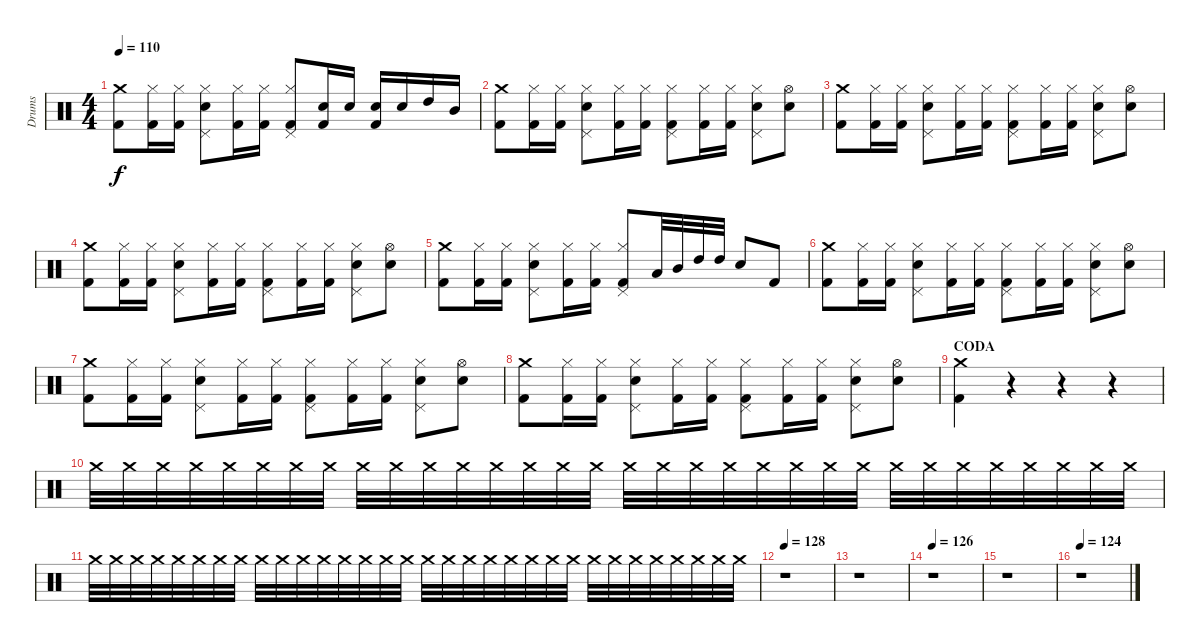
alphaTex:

\track ("Drums" "Drums") {instrument percussion}
\staff {score}
\articulation defaults
\ts (4 4)
\tempo 110
\clef neutral
\ks c
("Crash medium (hit)" "Kick (hit) 2").8{dy f} ("Kick (hit) 2" "Hi-Hat (closed)").16 ("Kick (hit) 2" "Hi-Hat (closed)").16 ("Snare (hit) 2" "Pedal Hi-Hat (hit)" "Hi-Hat (closed)").8 ("Kick (hit) 2" "Hi-Hat (closed)").16 ("Kick (hit) 2" "Hi-Hat (closed)").16 ("Kick (hit) 2" "Pedal Hi-Hat (hit)" "Hi-Hat (closed)").8 ("Snare (hit) 2" "Kick (hit) 2").16 "Snare (hit) 2".16 ("Snare (hit) 2" "Kick (hit) 2").16 "Snare (hit) 2".16 "High Tom (hit)".16 "Mid Tom (hit)".16 |
("Crash medium (hit)" "Kick (hit) 2").8 ("Kick (hit) 2" "Hi-Hat (closed)").16 ("Kick (hit) 2" "Hi-Hat (closed)").16 ("Snare (hit) 2" "Pedal Hi-Hat (hit)" "Hi-Hat (closed)").8 ("Kick (hit) 2" "Hi-Hat (closed)").16 ("Kick (hit) 2" "Hi-Hat (closed)").16 ("Kick (hit) 2" "Pedal Hi-Hat (hit)" "Hi-Hat (closed)").8 ("Kick (hit) 2" "Hi-Hat (closed)").16 ("Kick (hit) 2" "Hi-Hat (closed)").16 ("Snare (hit) 2" "Pedal Hi-Hat (hit)" "Hi-Hat (closed)").8 ("Snare (hit) 2" "Hi-Hat (open)").8 |
("Crash medium (hit)" "Kick (hit) 2").8 ("Kick (hit) 2" "Hi-Hat (closed)").16 ("Kick (hit) 2" "Hi-Hat (closed)").16 ("Snare (hit) 2" "Pedal Hi-Hat (hit)" "Hi-Hat (closed)").8 ("Kick (hit) 2" "Hi-Hat (closed)").16 ("Kick (hit) 2" "Hi-Hat (closed)").16 ("Kick (hit) 2" "Pedal Hi-Hat (hit)" "Hi-Hat (closed)").8 ("Kick (hit) 2" "Hi-Hat (closed)").16 ("Kick (hit) 2" "Hi-Hat (closed)").16 ("Snare (hit) 2" "Pedal Hi-Hat (hit)" "Hi-Hat (closed)").8 ("Snare (hit) 2" "Hi-Hat (open)").8 |
("Crash medium (hit)" "Kick (hit) 2").8 ("Kick (hit) 2" "Hi-Hat (closed)").16 ("Kick (hit) 2" "Hi-Hat (closed)").16 ("Snare (hit) 2" "Pedal Hi-Hat (hit)" "Hi-Hat (closed)").8 ("Kick (hit) 2" "Hi-Hat (closed)").16 ("Kick (hit) 2" "Hi-Hat (closed)").16 ("Kick (hit) 2" "Pedal Hi-Hat (hit)" "Hi-Hat (closed)").8 ("Kick (hit) 2" "Hi-Hat (closed)").16 ("Kick (hit) 2" "Hi-Hat (closed)").16 ("Snare (hit) 2" "Pedal Hi-Hat (hit)" "Hi-Hat (closed)").8 ("Snare (hit) 2" "Hi-Hat (open)").8 |
("Crash medium (hit)" "Kick (hit) 2").8 ("Kick (hit) 2" "Hi-Hat (closed)").16 ("Kick (hit) 2" "Hi-Hat (closed)").16 ("Snare (hit) 2" "Pedal Hi-Hat (hit)" "Hi-Hat (closed)").8 ("Kick (hit) 2" "Hi-Hat (closed)").16 ("Kick (hit) 2" "Hi-Hat (closed)").16 ("Kick (hit) 2" "Pedal Hi-Hat (hit)" "Hi-Hat (closed)").8 "Low Tom (hit)".32 "Mid Tom (hit)".32 "High Tom (hit)".32 "High Tom (hit)".32 "Snare (hit) 2".8 "Kick (hit) 2".8 |
("Crash medium (hit)" "Kick (hit) 2").8 ("Kick (hit) 2" "Hi-Hat (closed)").16 ("Kick (hit) 2" "Hi-Hat (closed)").16 ("Snare (hit) 2" "Pedal Hi-Hat (hit)" "Hi-Hat (closed)").8 ("Kick (hit) 2" "Hi-Hat (closed)").16 ("Kick (hit) 2" "Hi-Hat (closed)").16 ("Kick (hit) 2" "Pedal Hi-Hat (hit)" "Hi-Hat (closed)").8 ("Kick (hit) 2" "Hi-Hat (closed)").16 ("Kick (hit) 2" "Hi-Hat (closed)").16 ("Snare (hit) 2" "Pedal Hi-Hat (hit)" "Hi-Hat (closed)").8 ("Snare (hit) 2" "Hi-Hat (open)").8 |
("Crash medium (hit)" "Kick (hit) 2").8 ("Kick (hit) 2" "Hi-Hat (closed)").16 ("Kick (hit) 2" "Hi-Hat (closed)").16 ("Snare (hit) 2" "Pedal Hi-Hat (hit)" "Hi-Hat (closed)").8 ("Kick (hit) 2" "Hi-Hat (closed)").16 ("Kick (hit) 2" "Hi-Hat (closed)").16 ("Kick (hit) 2" "Pedal Hi-Hat (hit)" "Hi-Hat (closed)").8 ("Kick (hit) 2" "Hi-Hat (closed)").16 ("Kick (hit) 2" "Hi-Hat (closed)").16 ("Snare (hit) 2" "Pedal Hi-Hat (hit)" "Hi-Hat (closed)").8 ("Snare (hit) 2" "Hi-Hat (open)").8 |
("Crash medium (hit)" "Kick (hit) 2").8 ("Kick (hit) 2" "Hi-Hat (closed)").16 ("Kick (hit) 2" "Hi-Hat (closed)").16 ("Snare (hit) 2" "Pedal Hi-Hat (hit)" "Hi-Hat (closed)").8 ("Kick (hit) 2" "Hi-Hat (closed)").16 ("Kick (hit) 2" "Hi-Hat (closed)").16 ("Kick (hit) 2" "Pedal Hi-Hat (hit)" "Hi-Hat (closed)").8 ("Kick (hit) 2" "Hi-Hat (closed)").16 ("Kick (hit) 2" "Hi-Hat (closed)").16 ("Snare (hit) 2" "Pedal Hi-Hat (hit)" "Hi-Hat (closed)").8 ("Snare (hit) 2" "Hi-Hat (open)").8 |
\section ("" "CODA")
("Crash medium (hit)" "Kick (hit) 2").4 r.4 r.4 r.4{volume 0} |
"Crash medium (hit)".32{volume 4 balance 8} "Crash medium (hit)".32 "Crash medium (hit)".32 "Crash medium (hit)".32 "Crash medium (hit)".32 "Crash medium (hit)".32 "Crash medium (hit)".32 "Crash medium (hit)".32 "Crash medium (hit)".32 "Crash medium (hit)".32 "Crash medium (hit)".32 "Crash medium (hit)".32 "Crash medium (hit)".32 "Crash medium (hit)".32 "Crash medium (hit)".32 "Crash medium (hit)".32 "Crash medium (hit)".32 "Crash medium (hit)".32 "Crash medium (hit)".32 "Crash medium (hit)".32 "Crash medium (hit)".32 "Crash medium (hit)".32 "Crash medium (hit)".32 "Crash medium (hit)".32 "Crash medium (hit)".32 "Crash medium (hit)".32 "Crash medium (hit)".32 "Crash medium (hit)".32 "Crash medium (hit)".32 "Crash medium (hit)".32 "Crash medium (hit)".32 "Crash medium (hit)".32 |
"Crash medium (hit)".32 "Crash medium (hit)".32 "Crash medium (hit)".32 "Crash medium (hit)".32 "Crash medium (hit)".32 "Crash medium (hit)".32 "Crash medium (hit)".32 "Crash medium (hit)".32 "Crash medium (hit)".32 "Crash medium (hit)".32 "Crash medium (hit)".32 "Crash medium (hit)".32 "Crash medium (hit)".32 "Crash medium (hit)".32 "Crash medium (hit)".32 "Crash medium (hit)".32 "Crash medium (hit)".32 "Crash medium (hit)".32 "Crash medium (hit)".32 "Crash medium (hit)".32 "Crash medium (hit)".32 "Crash medium (hit)".32 "Crash medium (hit)".32 "Crash medium (hit)".32 "Crash medium (hit)".32 "Crash medium (hit)".32 "Crash medium (hit)".32 "Crash medium (hit)".32 "Crash medium (hit)".32 "Crash medium (hit)".32 "Crash medium (hit)".32 "Crash medium (hit)".32 |
\tempo 128
r.1 |
r.1 |
\tempo 126
r.1 |
r.1 |
\tempo 124
r.1
